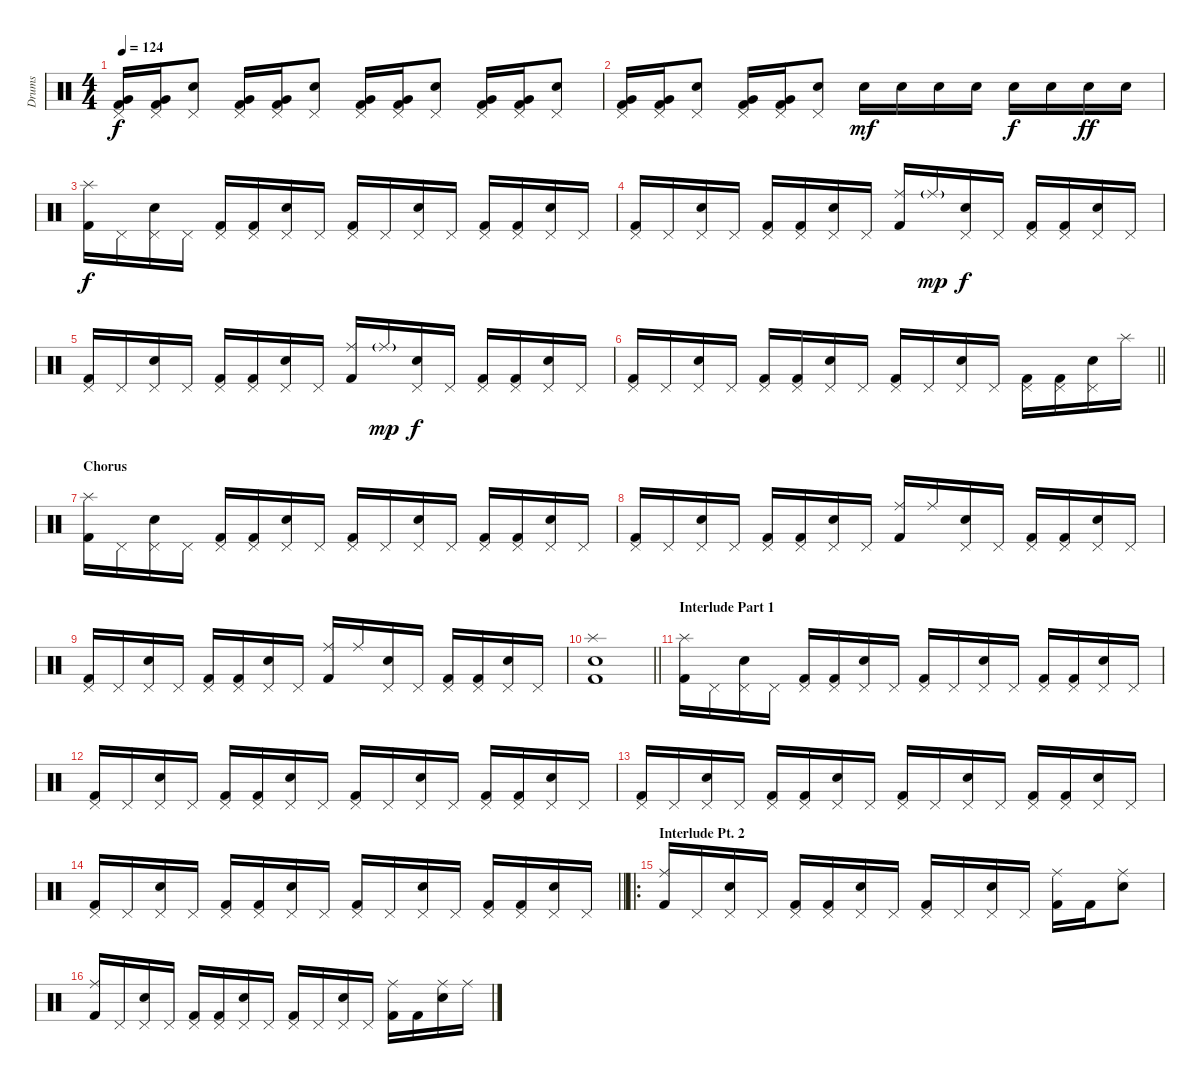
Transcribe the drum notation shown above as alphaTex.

\track ("Drums" "Drums") {instrument percussion}
\staff {score}
\articulation defaults
\ts (4 4)
\tempo 124
\clef neutral
\ks c
("Pedal Hi-Hat (hit)" "Very Low Tom (hit)" "Kick (hit) 2").16{dy f} ("Pedal Hi-Hat (hit)" "Very Low Tom (hit)" "Kick (hit) 2").16 ("Pedal Hi-Hat (hit)" "Electric Snare (hit)").8 ("Pedal Hi-Hat (hit)" "Very Low Tom (hit)" "Kick (hit) 2").16 ("Pedal Hi-Hat (hit)" "Very Low Tom (hit)" "Kick (hit) 2").16 ("Pedal Hi-Hat (hit)" "Electric Snare (hit)").8 ("Pedal Hi-Hat (hit)" "Very Low Tom (hit)" "Kick (hit) 2").16 ("Pedal Hi-Hat (hit)" "Very Low Tom (hit)" "Kick (hit) 2").16 ("Pedal Hi-Hat (hit)" "Electric Snare (hit)").8 ("Pedal Hi-Hat (hit)" "Very Low Tom (hit)" "Kick (hit) 2").16 ("Pedal Hi-Hat (hit)" "Very Low Tom (hit)" "Kick (hit) 2").16 ("Pedal Hi-Hat (hit)" "Electric Snare (hit)").8 |
("Pedal Hi-Hat (hit)" "Very Low Tom (hit)" "Kick (hit) 2").16 ("Pedal Hi-Hat (hit)" "Very Low Tom (hit)" "Kick (hit) 2").16 ("Pedal Hi-Hat (hit)" "Electric Snare (hit)").8 ("Pedal Hi-Hat (hit)" "Very Low Tom (hit)" "Kick (hit) 2").16 ("Pedal Hi-Hat (hit)" "Very Low Tom (hit)" "Kick (hit) 2").16 ("Pedal Hi-Hat (hit)" "Electric Snare (hit)").8 "Electric Snare (hit)".16{dy mf} "Electric Snare (hit)".16 "Electric Snare (hit)".16 "Electric Snare (hit)".16 "Electric Snare (hit)".16{dy f} "Electric Snare (hit)".16 "Electric Snare (hit)".16{dy ff} "Electric Snare (hit)".16 |
("Splash (hit)" "Kick (hit) 2").16{dy f} "Pedal Hi-Hat (hit)".16 ("Pedal Hi-Hat (hit)" "Electric Snare (hit)").16 "Pedal Hi-Hat (hit)".16 ("Pedal Hi-Hat (hit)" "Kick (hit) 2").16 ("Pedal Hi-Hat (hit)" "Kick (hit) 2").16 ("Pedal Hi-Hat (hit)" "Electric Snare (hit)").16 "Pedal Hi-Hat (hit)".16 ("Pedal Hi-Hat (hit)" "Kick (hit) 2").16 "Pedal Hi-Hat (hit)".16 ("Pedal Hi-Hat (hit)" "Electric Snare (hit)").16 "Pedal Hi-Hat (hit)".16 ("Pedal Hi-Hat (hit)" "Kick (hit) 2").16 ("Pedal Hi-Hat (hit)" "Kick (hit) 2").16 ("Pedal Hi-Hat (hit)" "Electric Snare (hit)").16 "Pedal Hi-Hat (hit)".16 |
("Pedal Hi-Hat (hit)" "Kick (hit) 2").16 "Pedal Hi-Hat (hit)".16 ("Pedal Hi-Hat (hit)" "Electric Snare (hit)").16 "Pedal Hi-Hat (hit)".16 ("Pedal Hi-Hat (hit)" "Kick (hit) 2").16 ("Pedal Hi-Hat (hit)" "Kick (hit) 2").16 ("Pedal Hi-Hat (hit)" "Electric Snare (hit)").16 "Pedal Hi-Hat (hit)".16 ("Ride (middle)" "Kick (hit) 2").16 "Ride (middle)"{g}.16{dy mp} ("Pedal Hi-Hat (hit)" "Electric Snare (hit)").16{dy f} "Pedal Hi-Hat (hit)".16 ("Pedal Hi-Hat (hit)" "Kick (hit) 2").16 ("Pedal Hi-Hat (hit)" "Kick (hit) 2").16 ("Pedal Hi-Hat (hit)" "Electric Snare (hit)").16 "Pedal Hi-Hat (hit)".16 |
("Pedal Hi-Hat (hit)" "Kick (hit) 2").16 "Pedal Hi-Hat (hit)".16 ("Pedal Hi-Hat (hit)" "Electric Snare (hit)").16 "Pedal Hi-Hat (hit)".16 ("Pedal Hi-Hat (hit)" "Kick (hit) 2").16 ("Pedal Hi-Hat (hit)" "Kick (hit) 2").16 ("Pedal Hi-Hat (hit)" "Electric Snare (hit)").16 "Pedal Hi-Hat (hit)".16 ("Ride (middle)" "Kick (hit) 2").16 "Ride (middle)"{g}.16{dy mp} ("Pedal Hi-Hat (hit)" "Electric Snare (hit)").16{dy f} "Pedal Hi-Hat (hit)".16 ("Pedal Hi-Hat (hit)" "Kick (hit) 2").16 ("Pedal Hi-Hat (hit)" "Kick (hit) 2").16 ("Pedal Hi-Hat (hit)" "Electric Snare (hit)").16 "Pedal Hi-Hat (hit)".16 |
\barLineRight lightlight
("Pedal Hi-Hat (hit)" "Kick (hit) 2").16 "Pedal Hi-Hat (hit)".16 ("Pedal Hi-Hat (hit)" "Electric Snare (hit)").16 "Pedal Hi-Hat (hit)".16 ("Pedal Hi-Hat (hit)" "Kick (hit) 2").16 ("Pedal Hi-Hat (hit)" "Kick (hit) 2").16 ("Pedal Hi-Hat (hit)" "Electric Snare (hit)").16 "Pedal Hi-Hat (hit)".16 ("Pedal Hi-Hat (hit)" "Kick (hit) 2").16 "Pedal Hi-Hat (hit)".16 ("Pedal Hi-Hat (hit)" "Electric Snare (hit)").16 "Pedal Hi-Hat (hit)".16 ("Pedal Hi-Hat (hit)" "Kick (hit) 2").16 ("Pedal Hi-Hat (hit)" "Kick (hit) 2").16 ("Pedal Hi-Hat (hit)" "Electric Snare (hit)").16 "Splash (hit)".16 |
\section ("" "Chorus")
("Splash (hit)" "Kick (hit) 2").16 "Pedal Hi-Hat (hit)".16 ("Pedal Hi-Hat (hit)" "Electric Snare (hit)").16 "Pedal Hi-Hat (hit)".16 ("Pedal Hi-Hat (hit)" "Kick (hit) 2").16 ("Pedal Hi-Hat (hit)" "Kick (hit) 2").16 ("Pedal Hi-Hat (hit)" "Electric Snare (hit)").16 "Pedal Hi-Hat (hit)".16 ("Pedal Hi-Hat (hit)" "Kick (hit) 2").16 "Pedal Hi-Hat (hit)".16 ("Pedal Hi-Hat (hit)" "Electric Snare (hit)").16 "Pedal Hi-Hat (hit)".16 ("Pedal Hi-Hat (hit)" "Kick (hit) 2").16 ("Pedal Hi-Hat (hit)" "Kick (hit) 2").16 ("Pedal Hi-Hat (hit)" "Electric Snare (hit)").16 "Pedal Hi-Hat (hit)".16 |
("Pedal Hi-Hat (hit)" "Kick (hit) 2").16 "Pedal Hi-Hat (hit)".16 ("Pedal Hi-Hat (hit)" "Electric Snare (hit)").16 "Pedal Hi-Hat (hit)".16 ("Pedal Hi-Hat (hit)" "Kick (hit) 2").16 ("Pedal Hi-Hat (hit)" "Kick (hit) 2").16 ("Pedal Hi-Hat (hit)" "Electric Snare (hit)").16 "Pedal Hi-Hat (hit)".16 ("Ride (middle)" "Kick (hit) 2").16 "Ride (middle)".16 ("Pedal Hi-Hat (hit)" "Electric Snare (hit)").16 "Pedal Hi-Hat (hit)".16 ("Pedal Hi-Hat (hit)" "Kick (hit) 2").16 ("Pedal Hi-Hat (hit)" "Kick (hit) 2").16 ("Pedal Hi-Hat (hit)" "Electric Snare (hit)").16 "Pedal Hi-Hat (hit)".16 |
("Pedal Hi-Hat (hit)" "Kick (hit) 2").16 "Pedal Hi-Hat (hit)".16 ("Pedal Hi-Hat (hit)" "Electric Snare (hit)").16 "Pedal Hi-Hat (hit)".16 ("Pedal Hi-Hat (hit)" "Kick (hit) 2").16 ("Pedal Hi-Hat (hit)" "Kick (hit) 2").16 ("Pedal Hi-Hat (hit)" "Electric Snare (hit)").16 "Pedal Hi-Hat (hit)".16 ("Ride (middle)" "Kick (hit) 2").16 "Ride (middle)".16 ("Pedal Hi-Hat (hit)" "Electric Snare (hit)").16 "Pedal Hi-Hat (hit)".16 ("Pedal Hi-Hat (hit)" "Kick (hit) 2").16 ("Pedal Hi-Hat (hit)" "Kick (hit) 2").16 ("Pedal Hi-Hat (hit)" "Electric Snare (hit)").16 "Pedal Hi-Hat (hit)".16 |
\barLineRight lightlight
("Splash (hit)" "Electric Snare (hit)" "Kick (hit) 2").1 |
\section ("" "Interlude Part 1")
("Splash (hit)" "Kick (hit) 2").16 "Pedal Hi-Hat (hit)".16 ("Pedal Hi-Hat (hit)" "Electric Snare (hit)").16 "Pedal Hi-Hat (hit)".16 ("Pedal Hi-Hat (hit)" "Kick (hit) 2").16 ("Pedal Hi-Hat (hit)" "Kick (hit) 2").16 ("Pedal Hi-Hat (hit)" "Electric Snare (hit)").16 "Pedal Hi-Hat (hit)".16 ("Pedal Hi-Hat (hit)" "Kick (hit) 2").16 "Pedal Hi-Hat (hit)".16 ("Pedal Hi-Hat (hit)" "Electric Snare (hit)").16 "Pedal Hi-Hat (hit)".16 ("Pedal Hi-Hat (hit)" "Kick (hit) 2").16 ("Pedal Hi-Hat (hit)" "Kick (hit) 2").16 ("Pedal Hi-Hat (hit)" "Electric Snare (hit)").16 "Pedal Hi-Hat (hit)".16 |
("Pedal Hi-Hat (hit)" "Kick (hit) 2").16 "Pedal Hi-Hat (hit)".16 ("Pedal Hi-Hat (hit)" "Electric Snare (hit)").16 "Pedal Hi-Hat (hit)".16 ("Pedal Hi-Hat (hit)" "Kick (hit) 2").16 ("Pedal Hi-Hat (hit)" "Kick (hit) 2").16 ("Pedal Hi-Hat (hit)" "Electric Snare (hit)").16 "Pedal Hi-Hat (hit)".16 ("Pedal Hi-Hat (hit)" "Kick (hit) 2").16 "Pedal Hi-Hat (hit)".16 ("Pedal Hi-Hat (hit)" "Electric Snare (hit)").16 "Pedal Hi-Hat (hit)".16 ("Pedal Hi-Hat (hit)" "Kick (hit) 2").16 ("Pedal Hi-Hat (hit)" "Kick (hit) 2").16 ("Pedal Hi-Hat (hit)" "Electric Snare (hit)").16 "Pedal Hi-Hat (hit)".16 |
("Pedal Hi-Hat (hit)" "Kick (hit) 2").16 "Pedal Hi-Hat (hit)".16 ("Pedal Hi-Hat (hit)" "Electric Snare (hit)").16 "Pedal Hi-Hat (hit)".16 ("Pedal Hi-Hat (hit)" "Kick (hit) 2").16 ("Pedal Hi-Hat (hit)" "Kick (hit) 2").16 ("Pedal Hi-Hat (hit)" "Electric Snare (hit)").16 "Pedal Hi-Hat (hit)".16 ("Pedal Hi-Hat (hit)" "Kick (hit) 2").16 "Pedal Hi-Hat (hit)".16 ("Pedal Hi-Hat (hit)" "Electric Snare (hit)").16 "Pedal Hi-Hat (hit)".16 ("Pedal Hi-Hat (hit)" "Kick (hit) 2").16 ("Pedal Hi-Hat (hit)" "Kick (hit) 2").16 ("Pedal Hi-Hat (hit)" "Electric Snare (hit)").16 "Pedal Hi-Hat (hit)".16 |
\barLineRight lightlight
("Pedal Hi-Hat (hit)" "Kick (hit) 2").16 "Pedal Hi-Hat (hit)".16 ("Pedal Hi-Hat (hit)" "Electric Snare (hit)").16 "Pedal Hi-Hat (hit)".16 ("Pedal Hi-Hat (hit)" "Kick (hit) 2").16 ("Pedal Hi-Hat (hit)" "Kick (hit) 2").16 ("Pedal Hi-Hat (hit)" "Electric Snare (hit)").16 "Pedal Hi-Hat (hit)".16 ("Pedal Hi-Hat (hit)" "Kick (hit) 2").16 "Pedal Hi-Hat (hit)".16 ("Pedal Hi-Hat (hit)" "Electric Snare (hit)").16 "Pedal Hi-Hat (hit)".16 ("Pedal Hi-Hat (hit)" "Kick (hit) 2").16 ("Pedal Hi-Hat (hit)" "Kick (hit) 2").16 ("Pedal Hi-Hat (hit)" "Electric Snare (hit)").16 "Pedal Hi-Hat (hit)".16 |
\ro
\section ("" "Interlude Pt. 2")
("Ride (middle)" "Kick (hit) 2").16 "Pedal Hi-Hat (hit)".16 ("Pedal Hi-Hat (hit)" "Electric Snare (hit)").16 "Pedal Hi-Hat (hit)".16 ("Pedal Hi-Hat (hit)" "Kick (hit) 2").16 ("Pedal Hi-Hat (hit)" "Kick (hit) 2").16 ("Pedal Hi-Hat (hit)" "Electric Snare (hit)").16 "Pedal Hi-Hat (hit)".16 ("Pedal Hi-Hat (hit)" "Kick (hit) 2").16 "Pedal Hi-Hat (hit)".16 ("Pedal Hi-Hat (hit)" "Electric Snare (hit)").16 "Pedal Hi-Hat (hit)".16 ("Ride (middle)" "Kick (hit) 2").16 "Kick (hit) 2".16 ("Ride (middle)" "Electric Snare (hit)").8 |
("Ride (middle)" "Kick (hit) 2").16 "Pedal Hi-Hat (hit)".16 ("Pedal Hi-Hat (hit)" "Electric Snare (hit)").16 "Pedal Hi-Hat (hit)".16 ("Pedal Hi-Hat (hit)" "Kick (hit) 2").16 ("Pedal Hi-Hat (hit)" "Kick (hit) 2").16 ("Pedal Hi-Hat (hit)" "Electric Snare (hit)").16 "Pedal Hi-Hat (hit)".16 ("Pedal Hi-Hat (hit)" "Kick (hit) 2").16 "Pedal Hi-Hat (hit)".16 ("Pedal Hi-Hat (hit)" "Electric Snare (hit)").16 "Pedal Hi-Hat (hit)".16 ("Ride (middle)" "Kick (hit) 2").16 "Kick (hit) 2".16 ("Ride (middle)" "Electric Snare (hit)").16 "Ride (middle)".16
